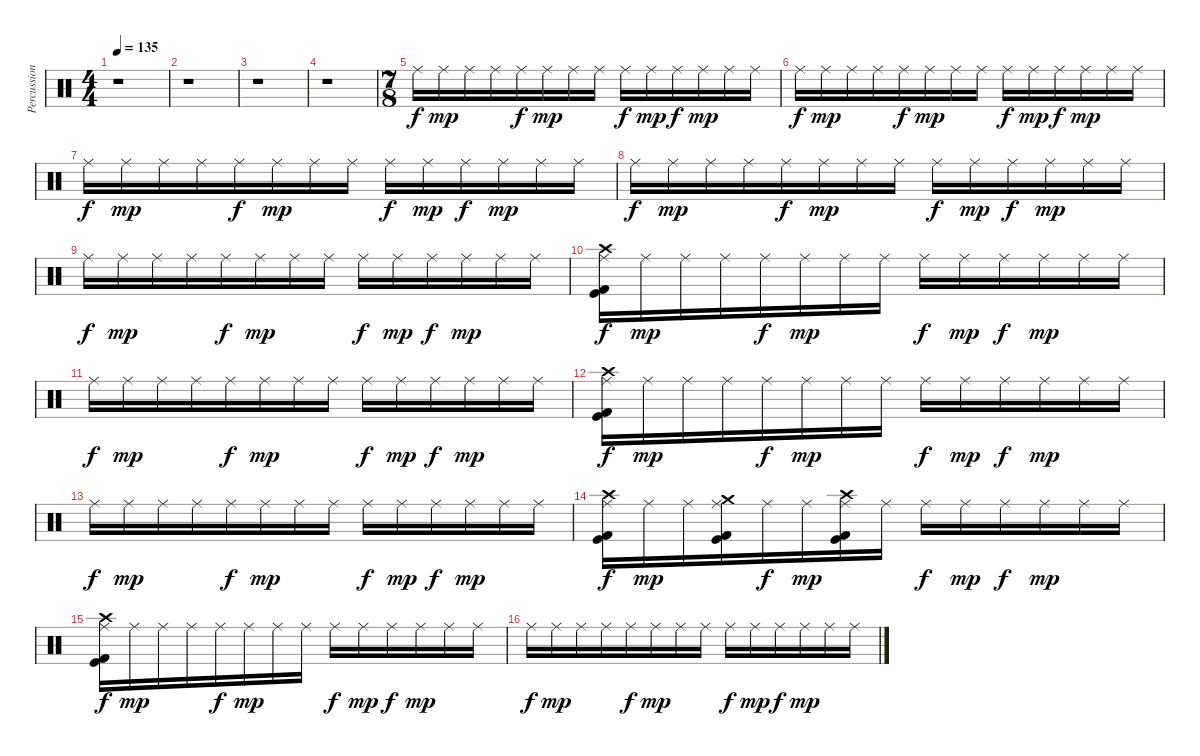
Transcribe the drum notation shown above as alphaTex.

\track ("Percussion" "Percussion") {instrument percussion}
\staff {score}
\articulation defaults
\ts (4 4)
\tempo 135
\clef neutral
\ks c
r.1{dy f} |
r.1 |
r.1 |
r.1 |
\ts (7 8)
"Ride (middle)".16 "Ride (middle)".16{dy mp} "Ride (middle)".16 "Ride (middle)".16 "Ride (middle)".16{dy f} "Ride (middle)".16{dy mp} "Ride (middle)".16 "Ride (middle)".16 "Ride (middle)".16{dy f} "Ride (middle)".16{dy mp} "Ride (middle)".16{dy f} "Ride (middle)".16{dy mp} "Ride (middle)".16 "Ride (middle)".16 |
"Ride (middle)".16{dy f} "Ride (middle)".16{dy mp} "Ride (middle)".16 "Ride (middle)".16 "Ride (middle)".16{dy f} "Ride (middle)".16{dy mp} "Ride (middle)".16 "Ride (middle)".16 "Ride (middle)".16{dy f} "Ride (middle)".16{dy mp} "Ride (middle)".16{dy f} "Ride (middle)".16{dy mp} "Ride (middle)".16 "Ride (middle)".16 |
"Ride (middle)".16{dy f} "Ride (middle)".16{dy mp} "Ride (middle)".16 "Ride (middle)".16 "Ride (middle)".16{dy f} "Ride (middle)".16{dy mp} "Ride (middle)".16 "Ride (middle)".16 "Ride (middle)".16{dy f} "Ride (middle)".16{dy mp} "Ride (middle)".16{dy f} "Ride (middle)".16{dy mp} "Ride (middle)".16 "Ride (middle)".16 |
"Ride (middle)".16{dy f} "Ride (middle)".16{dy mp} "Ride (middle)".16 "Ride (middle)".16 "Ride (middle)".16{dy f} "Ride (middle)".16{dy mp} "Ride (middle)".16 "Ride (middle)".16 "Ride (middle)".16{dy f} "Ride (middle)".16{dy mp} "Ride (middle)".16{dy f} "Ride (middle)".16{dy mp} "Ride (middle)".16 "Ride (middle)".16 |
"Ride (middle)".16{dy f} "Ride (middle)".16{dy mp} "Ride (middle)".16 "Ride (middle)".16 "Ride (middle)".16{dy f} "Ride (middle)".16{dy mp} "Ride (middle)".16 "Ride (middle)".16 "Ride (middle)".16{dy f} "Ride (middle)".16{dy mp} "Ride (middle)".16{dy f} "Ride (middle)".16{dy mp} "Ride (middle)".16 "Ride (middle)".16 |
("Ride (middle)" "Crash high (hit)" "Kick (hit) 2" "Kick (hit)").16{dy f} "Ride (middle)".16{dy mp} "Ride (middle)".16 "Ride (middle)".16 "Ride (middle)".16{dy f} "Ride (middle)".16{dy mp} "Ride (middle)".16 "Ride (middle)".16 "Ride (middle)".16{dy f} "Ride (middle)".16{dy mp} "Ride (middle)".16{dy f} "Ride (middle)".16{dy mp} "Ride (middle)".16 "Ride (middle)".16 |
"Ride (middle)".16{dy f} "Ride (middle)".16{dy mp} "Ride (middle)".16 "Ride (middle)".16 "Ride (middle)".16{dy f} "Ride (middle)".16{dy mp} "Ride (middle)".16 "Ride (middle)".16 "Ride (middle)".16{dy f} "Ride (middle)".16{dy mp} "Ride (middle)".16{dy f} "Ride (middle)".16{dy mp} "Ride (middle)".16 "Ride (middle)".16 |
("Ride (middle)" "Crash high (hit)" "Kick (hit) 2" "Kick (hit)").16{dy f} "Ride (middle)".16{dy mp} "Ride (middle)".16 "Ride (middle)".16 "Ride (middle)".16{dy f} "Ride (middle)".16{dy mp} "Ride (middle)".16 "Ride (middle)".16 "Ride (middle)".16{dy f} "Ride (middle)".16{dy mp} "Ride (middle)".16{dy f} "Ride (middle)".16{dy mp} "Ride (middle)".16 "Ride (middle)".16 |
"Ride (middle)".16{dy f} "Ride (middle)".16{dy mp} "Ride (middle)".16 "Ride (middle)".16 "Ride (middle)".16{dy f} "Ride (middle)".16{dy mp} "Ride (middle)".16 "Ride (middle)".16 "Ride (middle)".16{dy f} "Ride (middle)".16{dy mp} "Ride (middle)".16{dy f} "Ride (middle)".16{dy mp} "Ride (middle)".16 "Ride (middle)".16 |
("Ride (middle)" "Crash high (hit)" "Kick (hit) 2" "Kick (hit)").16{dy f} "Ride (middle)".16{dy mp} "Ride (middle)".16 ("Ride (middle)" "Crash medium (hit)" "Kick (hit) 2" "Kick (hit)").16 "Ride (middle)".16{dy f} "Ride (middle)".16{dy mp} ("Ride (middle)" "Crash high (hit)" "Kick (hit) 2" "Kick (hit)").16 "Ride (middle)".16 "Ride (middle)".16{dy f} "Ride (middle)".16{dy mp} "Ride (middle)".16{dy f} "Ride (middle)".16{dy mp} "Ride (middle)".16 "Ride (middle)".16 |
("Ride (middle)" "Crash high (hit)" "Kick (hit) 2" "Kick (hit)").16{dy f} "Ride (middle)".16{dy mp} "Ride (middle)".16 "Ride (middle)".16 "Ride (middle)".16{dy f} "Ride (middle)".16{dy mp} "Ride (middle)".16 "Ride (middle)".16 "Ride (middle)".16{dy f} "Ride (middle)".16{dy mp} "Ride (middle)".16{dy f} "Ride (middle)".16{dy mp} "Ride (middle)".16 "Ride (middle)".16 |
"Ride (middle)".16{dy f} "Ride (middle)".16{dy mp} "Ride (middle)".16 "Ride (middle)".16 "Ride (middle)".16{dy f} "Ride (middle)".16{dy mp} "Ride (middle)".16 "Ride (middle)".16 "Ride (middle)".16{dy f} "Ride (middle)".16{dy mp} "Ride (middle)".16{dy f} "Ride (middle)".16{dy mp} "Ride (middle)".16 "Ride (middle)".16
